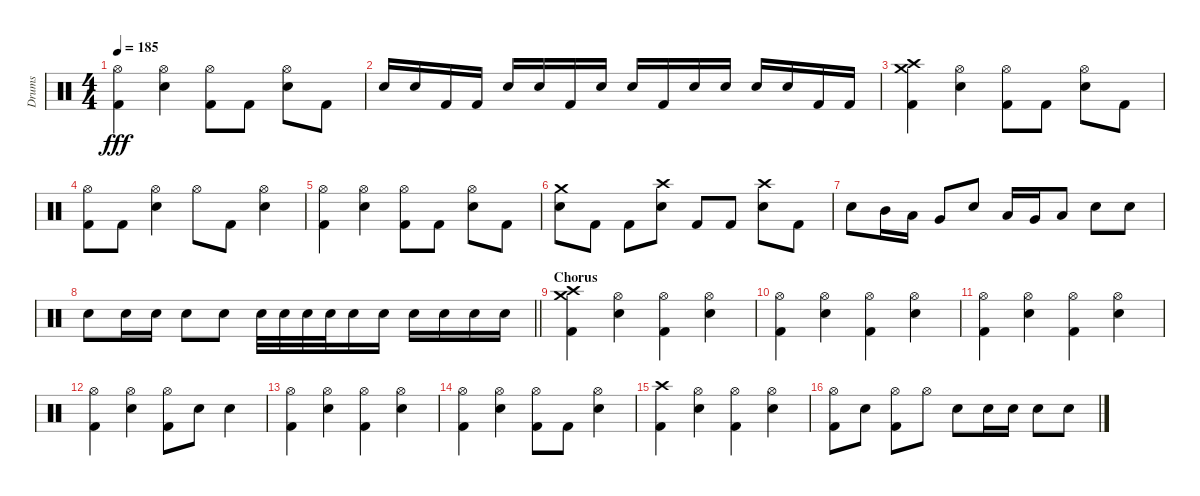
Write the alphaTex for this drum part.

\track ("Drums" "Drums") {instrument percussion}
\staff {score}
\articulation defaults
\ts (4 4)
\tempo 185
\clef neutral
\ks c
("Hi-Hat (open)" "Kick (hit) 2").4{dy fff} ("Hi-Hat (open)" "Electric Snare (hit)").4 ("Hi-Hat (open)" "Kick (hit) 2").8 "Kick (hit) 2".8 ("Hi-Hat (open)" "Electric Snare (hit)").8 "Kick (hit) 2".8 |
"Electric Snare (hit)".16 "Electric Snare (hit)".16 "Kick (hit) 2".16 "Kick (hit) 2".16 "Electric Snare (hit)".16 "Electric Snare (hit)".16 "Kick (hit) 2".16 "Electric Snare (hit)".16 "Electric Snare (hit)".16 "Kick (hit) 2".16 "Electric Snare (hit)".16 "Electric Snare (hit)".16 "Electric Snare (hit)".16 "Electric Snare (hit)".16 "Kick (hit) 2".16 "Kick (hit) 2".16 |
("Crash high (hit)" "Crash medium (hit)" "Kick (hit) 2").4 ("Hi-Hat (open)" "Electric Snare (hit)").4 ("Hi-Hat (open)" "Kick (hit) 2").8 "Kick (hit) 2".8 ("Hi-Hat (open)" "Electric Snare (hit)").8 "Kick (hit) 2".8 |
("Hi-Hat (open)" "Kick (hit) 2").8 "Kick (hit) 2".8 ("Hi-Hat (open)" "Electric Snare (hit)").4 "Hi-Hat (open)".8 "Kick (hit) 2".8 ("Hi-Hat (open)" "Electric Snare (hit)").4 |
("Hi-Hat (open)" "Kick (hit) 2").4 ("Hi-Hat (open)" "Electric Snare (hit)").4 ("Hi-Hat (open)" "Kick (hit) 2").8 "Kick (hit) 2".8 ("Hi-Hat (open)" "Electric Snare (hit)").8 "Kick (hit) 2".8 |
("Crash medium (hit)" "Electric Snare (hit)").8 "Kick (hit) 2".8 "Kick (hit) 2".8 ("Crash high (hit)" "Electric Snare (hit)").8 "Kick (hit) 2".8 "Kick (hit) 2".8 ("Crash high (hit)" "Electric Snare (hit)").8 "Kick (hit) 2".8 |
"Electric Snare (hit)".8 "Mid Tom (hit)".16 "Low Tom (hit)".16 "Very Low Tom (hit)".8 "Electric Snare (hit)".8 "Low Tom (hit)".16 "Very Low Tom (hit)".16 "Low Floor Tom (hit)".8 "Electric Snare (hit)".8 "Electric Snare (hit)".8 |
\barLineRight lightlight "Electric Snare (hit)".8 "Electric Snare (hit)".16 "Electric Snare (hit)".16 "Electric Snare (hit)".8 "Electric Snare (hit)".8 "Electric Snare (hit)".32 "Electric Snare (hit)".32 "Electric Snare (hit)".32 "Electric Snare (hit)".32 "Electric Snare (hit)".16 "Electric Snare (hit)".16 "Electric Snare (hit)".16 "Electric Snare (hit)".16 "Electric Snare (hit)".16 "Electric Snare (hit)".16
|
\section ("" "Chorus")
("Crash medium (hit)" "Crash high (hit)" "Kick (hit) 2").4 ("Hi-Hat (open)" "Electric Snare (hit)").4 ("Hi-Hat (open)" "Kick (hit) 2").4 ("Hi-Hat (open)" "Electric Snare (hit)").4 |
("Hi-Hat (open)" "Kick (hit) 2").4 ("Hi-Hat (open)" "Electric Snare (hit)").4 ("Hi-Hat (open)" "Kick (hit) 2").4 ("Hi-Hat (open)" "Electric Snare (hit)").4 |
("Hi-Hat (open)" "Kick (hit) 2").4 ("Hi-Hat (open)" "Electric Snare (hit)").4 ("Hi-Hat (open)" "Kick (hit) 2").4 ("Hi-Hat (open)" "Electric Snare (hit)").4 |
("Hi-Hat (open)" "Kick (hit) 2").4 ("Hi-Hat (open)" "Electric Snare (hit)").4 ("Hi-Hat (open)" "Kick (hit) 2").8 "Electric Snare (hit)".8 "Electric Snare (hit)".4 |
("Hi-Hat (open)" "Kick (hit) 2").4 ("Hi-Hat (open)" "Electric Snare (hit)").4 ("Hi-Hat (open)" "Kick (hit) 2").4 ("Hi-Hat (open)" "Electric Snare (hit)").4 |
("Hi-Hat (open)" "Kick (hit) 2").4 ("Hi-Hat (open)" "Electric Snare (hit)").4 ("Hi-Hat (open)" "Kick (hit) 2").8 "Kick (hit) 2".8 ("Hi-Hat (open)" "Electric Snare (hit)").4 |
("Crash high (hit)" "Kick (hit) 2").4 ("Hi-Hat (open)" "Electric Snare (hit)").4 ("Hi-Hat (open)" "Kick (hit) 2").4 ("Hi-Hat (open)" "Electric Snare (hit)").4 |
("Hi-Hat (open)" "Kick (hit) 2").8 "Electric Snare (hit)".8 ("Hi-Hat (open)" "Kick (hit) 2").8 "Hi-Hat (open)".8 "Electric Snare (hit)".8 "Electric Snare (hit)".16 "Electric Snare (hit)".16 "Electric Snare (hit)".8 "Electric Snare (hit)".8
